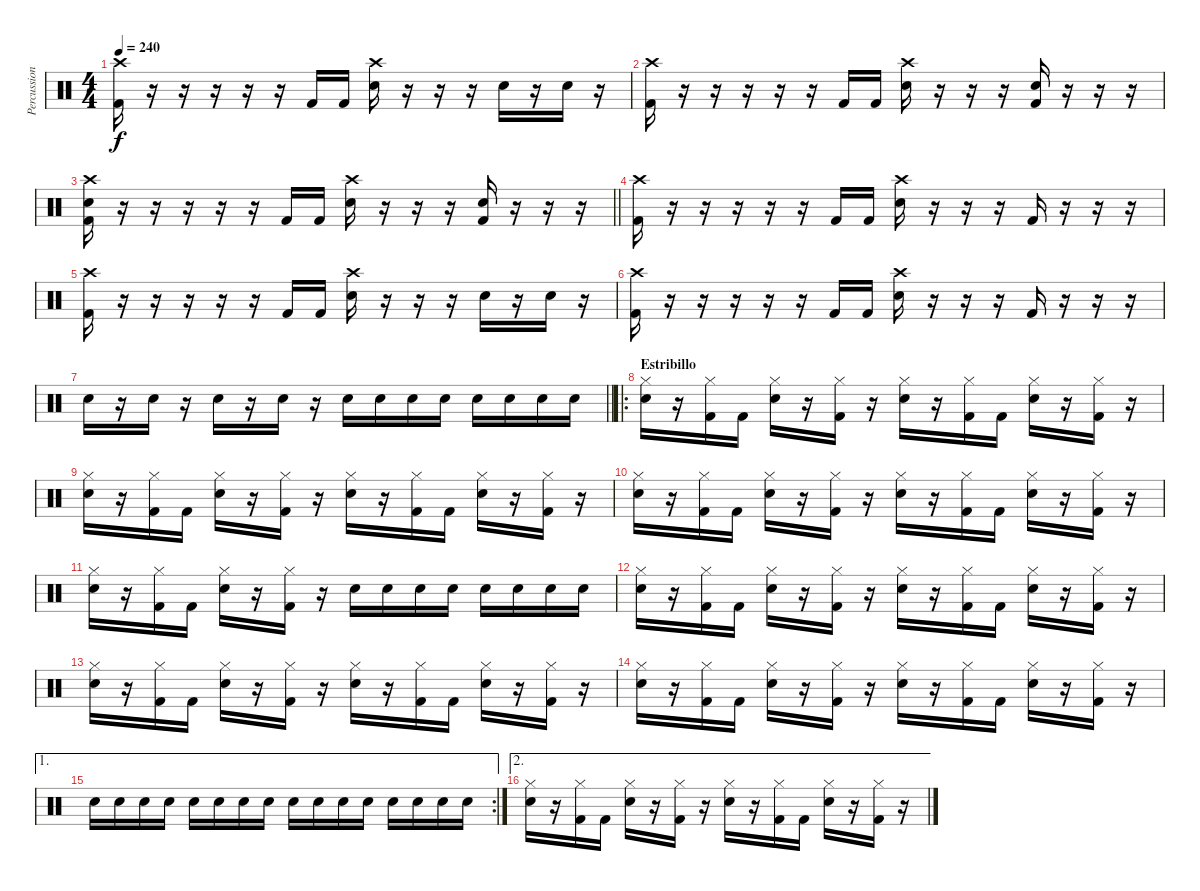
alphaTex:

\track ("Percussion" "Percussion") {instrument percussion}
\staff {score}
\articulation defaults
\ts (4 4)
\tempo 240
\clef neutral
\ks c
("Crash high (hit)" "Kick (hit) 2").16{dy f} r.16 r.16 r.16 r.16 r.16 "Kick (hit) 2".16 "Kick (hit) 2".16 ("Crash high (hit)" "Electric Snare (hit)").16 r.16 r.16 r.16 "Electric Snare (hit)".16 r.16 "Electric Snare (hit)".16 r.16 |
("Crash high (hit)" "Kick (hit) 2").16 r.16 r.16 r.16 r.16 r.16 "Kick (hit) 2".16 "Kick (hit) 2".16 ("Crash high (hit)" "Electric Snare (hit)").16 r.16 r.16 r.16 ("Electric Snare (hit)" "Kick (hit) 2").16 r.16 r.16 r.16 |
\barLineRight lightlight
("Crash high (hit)" "Electric Snare (hit)" "Kick (hit) 2").16 r.16 r.16 r.16 r.16 r.16 "Kick (hit) 2".16 "Kick (hit) 2".16 ("Crash high (hit)" "Electric Snare (hit)").16 r.16 r.16 r.16 ("Electric Snare (hit)" "Kick (hit) 2").16 r.16 r.16 r.16 |
("Crash high (hit)" "Kick (hit) 2").16 r.16 r.16 r.16 r.16 r.16 "Kick (hit) 2".16 "Kick (hit) 2".16 ("Crash high (hit)" "Electric Snare (hit)").16 r.16 r.16 r.16 "Kick (hit) 2".16 r.16 r.16 r.16 |
("Crash high (hit)" "Kick (hit) 2").16 r.16 r.16 r.16 r.16 r.16 "Kick (hit) 2".16 "Kick (hit) 2".16 ("Crash high (hit)" "Electric Snare (hit)").16 r.16 r.16 r.16 "Electric Snare (hit)".16 r.16 "Electric Snare (hit)".16 r.16 |
("Crash high (hit)" "Kick (hit) 2").16 r.16 r.16 r.16 r.16 r.16 "Kick (hit) 2".16 "Kick (hit) 2".16 ("Crash high (hit)" "Electric Snare (hit)").16 r.16 r.16 r.16 "Kick (hit) 2".16 r.16 r.16 r.16 |
\barLineRight lightlight "Electric Snare (hit)".16
r.16 "Electric Snare (hit)".16 r.16 "Electric Snare (hit)".16 r.16 "Electric Snare (hit)".16 r.16 "Electric Snare (hit)".16 "Electric Snare (hit)".16 "Electric Snare (hit)".16 "Electric Snare (hit)".16 "Electric Snare (hit)".16 "Electric Snare (hit)".16 "Electric Snare (hit)".16 "Electric Snare (hit)".16 |
\ro
\section ("" "Estribillo")
("Hi-Hat (closed)" "Electric Snare (hit)").16 r.16 ("Hi-Hat (closed)" "Kick (hit) 2").16 "Kick (hit) 2".16 ("Hi-Hat (closed)" "Electric Snare (hit)").16 r.16 ("Hi-Hat (closed)" "Kick (hit) 2").16 r.16 ("Hi-Hat (closed)" "Electric Snare (hit)").16 r.16 ("Hi-Hat (closed)" "Kick (hit) 2").16 "Kick (hit) 2".16 ("Hi-Hat (closed)" "Electric Snare (hit)").16 r.16 ("Hi-Hat (closed)" "Kick (hit) 2").16 r.16 |
("Hi-Hat (closed)" "Electric Snare (hit)").16 r.16 ("Hi-Hat (closed)" "Kick (hit) 2").16 "Kick (hit) 2".16 ("Hi-Hat (closed)" "Electric Snare (hit)").16 r.16 ("Hi-Hat (closed)" "Kick (hit) 2").16 r.16 ("Hi-Hat (closed)" "Electric Snare (hit)").16 r.16 ("Hi-Hat (closed)" "Kick (hit) 2").16 "Kick (hit) 2".16 ("Hi-Hat (closed)" "Electric Snare (hit)").16 r.16 ("Hi-Hat (closed)" "Kick (hit) 2").16 r.16 |
("Hi-Hat (closed)" "Electric Snare (hit)").16 r.16 ("Hi-Hat (closed)" "Kick (hit) 2").16 "Kick (hit) 2".16 ("Hi-Hat (closed)" "Electric Snare (hit)").16 r.16 ("Hi-Hat (closed)" "Kick (hit) 2").16 r.16 ("Hi-Hat (closed)" "Electric Snare (hit)").16 r.16 ("Hi-Hat (closed)" "Kick (hit) 2").16 "Kick (hit) 2".16 ("Hi-Hat (closed)" "Electric Snare (hit)").16 r.16 ("Hi-Hat (closed)" "Kick (hit) 2").16 r.16 |
("Hi-Hat (closed)" "Electric Snare (hit)").16 r.16 ("Hi-Hat (closed)" "Kick (hit) 2").16 "Kick (hit) 2".16 ("Hi-Hat (closed)" "Electric Snare (hit)").16 r.16 ("Hi-Hat (closed)" "Kick (hit) 2").16 r.16 "Electric Snare (hit)".16 "Electric Snare (hit)".16 "Electric Snare (hit)".16 "Electric Snare (hit)".16 "Electric Snare (hit)".16 "Electric Snare (hit)".16 "Electric Snare (hit)".16 "Electric Snare (hit)".16 |
("Hi-Hat (closed)" "Electric Snare (hit)").16 r.16 ("Hi-Hat (closed)" "Kick (hit) 2").16 "Kick (hit) 2".16 ("Hi-Hat (closed)" "Electric Snare (hit)").16 r.16 ("Hi-Hat (closed)" "Kick (hit) 2").16 r.16 ("Hi-Hat (closed)" "Electric Snare (hit)").16 r.16 ("Hi-Hat (closed)" "Kick (hit) 2").16 "Kick (hit) 2".16 ("Hi-Hat (closed)" "Electric Snare (hit)").16 r.16 ("Hi-Hat (closed)" "Kick (hit) 2").16 r.16 |
("Hi-Hat (closed)" "Electric Snare (hit)").16 r.16 ("Hi-Hat (closed)" "Kick (hit) 2").16 "Kick (hit) 2".16 ("Hi-Hat (closed)" "Electric Snare (hit)").16 r.16 ("Hi-Hat (closed)" "Kick (hit) 2").16 r.16 ("Hi-Hat (closed)" "Electric Snare (hit)").16 r.16 ("Hi-Hat (closed)" "Kick (hit) 2").16 "Kick (hit) 2".16 ("Hi-Hat (closed)" "Electric Snare (hit)").16 r.16 ("Hi-Hat (closed)" "Kick (hit) 2").16 r.16 |
("Hi-Hat (closed)" "Electric Snare (hit)").16 r.16 ("Hi-Hat (closed)" "Kick (hit) 2").16 "Kick (hit) 2".16 ("Hi-Hat (closed)" "Electric Snare (hit)").16 r.16 ("Hi-Hat (closed)" "Kick (hit) 2").16 r.16 ("Hi-Hat (closed)" "Electric Snare (hit)").16 r.16 ("Hi-Hat (closed)" "Kick (hit) 2").16 "Kick (hit) 2".16 ("Hi-Hat (closed)" "Electric Snare (hit)").16 r.16 ("Hi-Hat (closed)" "Kick (hit) 2").16 r.16 |
\ae 1
\rc 2 "Electric Snare (hit)".16 "Electric Snare (hit)".16 "Electric Snare (hit)".16 "Electric Snare (hit)".16 "Electric Snare (hit)".16 "Electric Snare (hit)".16 "Electric Snare (hit)".16 "Electric Snare (hit)".16 "Electric Snare (hit)".16 "Electric Snare (hit)".16 "Electric Snare (hit)".16 "Electric Snare (hit)".16 "Electric Snare (hit)".16 "Electric Snare (hit)".16 "Electric Snare (hit)".16 "Electric Snare (hit)".16
|
\ae 2
("Hi-Hat (closed)" "Electric Snare (hit)").16 r.16 ("Hi-Hat (closed)" "Kick (hit) 2").16 "Kick (hit) 2".16 ("Hi-Hat (closed)" "Electric Snare (hit)").16 r.16 ("Hi-Hat (closed)" "Kick (hit) 2").16 r.16 ("Hi-Hat (closed)" "Electric Snare (hit)").16 r.16 ("Hi-Hat (closed)" "Kick (hit) 2").16 "Kick (hit) 2".16 ("Hi-Hat (closed)" "Electric Snare (hit)").16 r.16 ("Hi-Hat (closed)" "Kick (hit) 2").16 r.16
